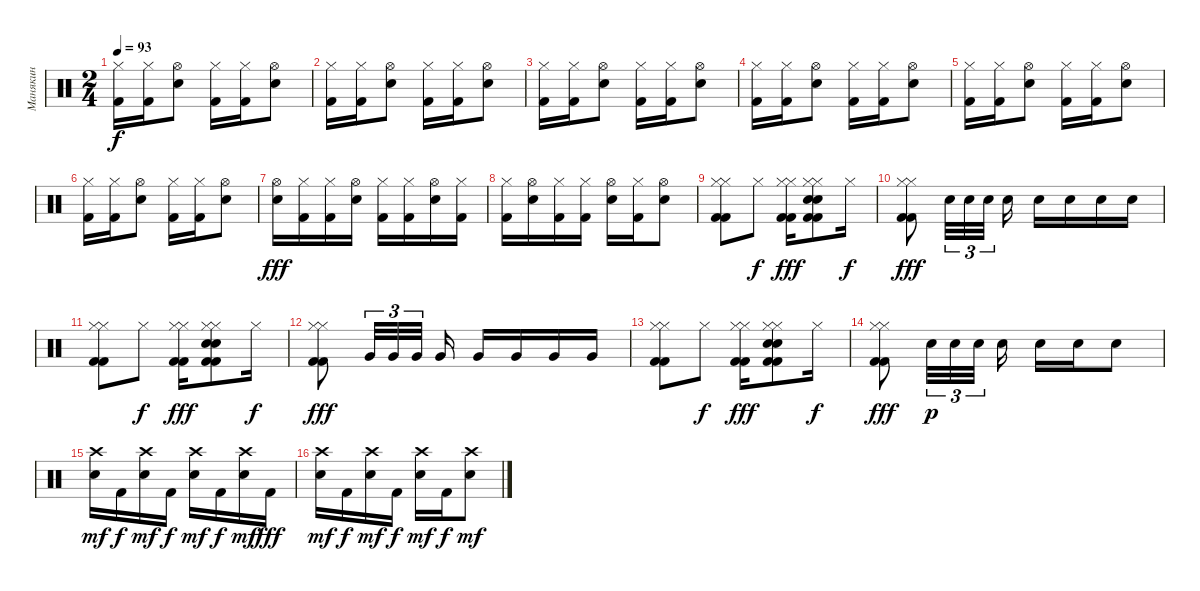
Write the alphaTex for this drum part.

\track ("Манякин" "Манякин") {instrument percussion}
\staff {score}
\articulation defaults
\ts (2 4)
\tempo 93
\clef neutral
\ks c
("Kick (hit) 2" "Hi-Hat (closed)").16{dy f} ("Kick (hit) 2" "Hi-Hat (closed)").16 ("Snare (hit) 2" "Hi-Hat (open)").8 ("Kick (hit) 2" "Hi-Hat (closed)").16 ("Kick (hit) 2" "Hi-Hat (closed)").16 ("Snare (hit) 2" "Hi-Hat (open)").8 |
("Kick (hit) 2" "Hi-Hat (closed)").16 ("Kick (hit) 2" "Hi-Hat (closed)").16 ("Snare (hit) 2" "Hi-Hat (open)").8 ("Kick (hit) 2" "Hi-Hat (closed)").16 ("Kick (hit) 2" "Hi-Hat (closed)").16 ("Snare (hit) 2" "Hi-Hat (open)").8 |
("Kick (hit) 2" "Hi-Hat (closed)").16 ("Kick (hit) 2" "Hi-Hat (closed)").16 ("Snare (hit) 2" "Hi-Hat (open)").8 ("Kick (hit) 2" "Hi-Hat (closed)").16 ("Kick (hit) 2" "Hi-Hat (closed)").16 ("Snare (hit) 2" "Hi-Hat (open)").8 |
("Kick (hit) 2" "Hi-Hat (closed)").16 ("Kick (hit) 2" "Hi-Hat (closed)").16 ("Snare (hit) 2" "Hi-Hat (open)").8 ("Kick (hit) 2" "Hi-Hat (closed)").16 ("Kick (hit) 2" "Hi-Hat (closed)").16 ("Snare (hit) 2" "Hi-Hat (open)").8 |
("Kick (hit) 2" "Hi-Hat (closed)").16 ("Kick (hit) 2" "Hi-Hat (closed)").16 ("Snare (hit) 2" "Hi-Hat (open)").8 ("Kick (hit) 2" "Hi-Hat (closed)").16 ("Kick (hit) 2" "Hi-Hat (closed)").16 ("Snare (hit) 2" "Hi-Hat (open)").8 |
("Kick (hit) 2" "Hi-Hat (closed)").16 ("Kick (hit) 2" "Hi-Hat (closed)").16 ("Snare (hit) 2" "Hi-Hat (open)").8 ("Kick (hit) 2" "Hi-Hat (closed)").16 ("Kick (hit) 2" "Hi-Hat (closed)").16 ("Snare (hit) 2" "Hi-Hat (open)").8 |
("Snare (hit) 2" "Hi-Hat (open)").16{dy fff} ("Kick (hit) 2" "Hi-Hat (closed)").16 ("Kick (hit) 2" "Hi-Hat (closed)").16 ("Snare (hit) 2" "Hi-Hat (open)").16 ("Kick (hit) 2" "Hi-Hat (closed)").16 ("Kick (hit) 2" "Hi-Hat (closed)").16 ("Snare (hit) 2" "Hi-Hat (open)").16 ("Kick (hit) 2" "Hi-Hat (closed)").16 |
("Kick (hit) 2" "Hi-Hat (closed)").16 ("Snare (hit) 2" "Hi-Hat (open)").16 ("Kick (hit) 2" "Hi-Hat (closed)").16 ("Kick (hit) 2" "Hi-Hat (closed)").16 ("Snare (hit) 2" "Hi-Hat (open)").16 ("Kick (hit) 2" "Hi-Hat (closed)").16 ("Snare (hit) 2" "Hi-Hat (open)").8 |
("Kick (hit) 2" "Kick (hit) 2" "Hi-Hat (closed)" "Hi-Hat (closed)").8 "Hi-Hat (closed)".8{dy f} ("Kick (hit) 2" "Kick (hit) 2" "Hi-Hat (closed)" "Hi-Hat (closed)").16{dy fff} ("Kick (hit) 2" "Kick (hit) 2" "Snare (hit) 2" "Snare (hit) 2" "Hi-Hat (closed)" "Hi-Hat (closed)").8 "Hi-Hat (closed)".16{dy f} |
("Kick (hit) 2" "Kick (hit) 2" "Hi-Hat (closed)" "Hi-Hat (closed)").8{dy fff} "Snare (hit) 2".32{tu (3 2)} "Snare (hit) 2".32{tu (3 2)} "Snare (hit) 2".32{tu (3 2)} "Snare (hit) 2".16 "Snare (hit) 2".16 "Snare (hit) 2".16 "Snare (hit) 2".16 "Snare (hit) 2".16 |
("Kick (hit) 2" "Kick (hit) 2" "Hi-Hat (closed)" "Hi-Hat (closed)").8 "Hi-Hat (closed)".8{dy f} ("Kick (hit) 2" "Kick (hit) 2" "Hi-Hat (closed)" "Hi-Hat (closed)").16{dy fff} ("Kick (hit) 2" "Kick (hit) 2" "Snare (hit) 2" "Snare (hit) 2" "Hi-Hat (closed)" "Hi-Hat (closed)").8 "Hi-Hat (closed)".16{dy f} |
("Kick (hit) 2" "Kick (hit) 2" "Hi-Hat (closed)" "Hi-Hat (closed)").8{dy fff} "Very Low Tom (hit)".32{tu (3 2)} "Very Low Tom (hit)".32{tu (3 2)} "Very Low Tom (hit)".32{tu (3 2)} "Very Low Tom (hit)".16 "Very Low Tom (hit)".16 "Very Low Tom (hit)".16 "Very Low Tom (hit)".16 "Very Low Tom (hit)".16 |
("Kick (hit) 2" "Kick (hit) 2" "Hi-Hat (closed)" "Hi-Hat (closed)").8 "Hi-Hat (closed)".8{dy f} ("Kick (hit) 2" "Kick (hit) 2" "Hi-Hat (closed)" "Hi-Hat (closed)").16{dy fff} ("Kick (hit) 2" "Kick (hit) 2" "Snare (hit) 2" "Snare (hit) 2" "Hi-Hat (closed)" "Hi-Hat (closed)").8 "Hi-Hat (closed)".16{dy f} |
("Kick (hit) 2" "Kick (hit) 2" "Hi-Hat (closed)" "Hi-Hat (closed)").8{dy fff} "Snare (hit) 2".32{tu (3 2) dy p} "Snare (hit) 2".32{tu (3 2)} "Snare (hit) 2".32{tu (3 2)} "Snare (hit) 2".16 "Snare (hit) 2".16 "Snare (hit) 2".16 "Snare (hit) 2".8 |
("Snare (hit) 2" "Crash high (hit)").16{dy mf} "Kick (hit) 2".16{dy f} ("Snare (hit) 2" "Crash high (hit)").16{dy mf} "Kick (hit) 2".16{dy f} ("Snare (hit) 2" "Crash high (hit)").16{dy mf} "Kick (hit) 2".16{dy f} ("Snare (hit) 2" "Crash high (hit)").16{dy mf} "Kick (hit) 2".16{dy fff} |
("Snare (hit) 2" "Crash high (hit)").16{dy mf} "Kick (hit) 2".16{dy f} ("Snare (hit) 2" "Crash high (hit)").16{dy mf} "Kick (hit) 2".16{dy f} ("Snare (hit) 2" "Crash high (hit)").16{dy mf} "Kick (hit) 2".16{dy f} ("Snare (hit) 2" "Crash high (hit)").8{dy mf}
